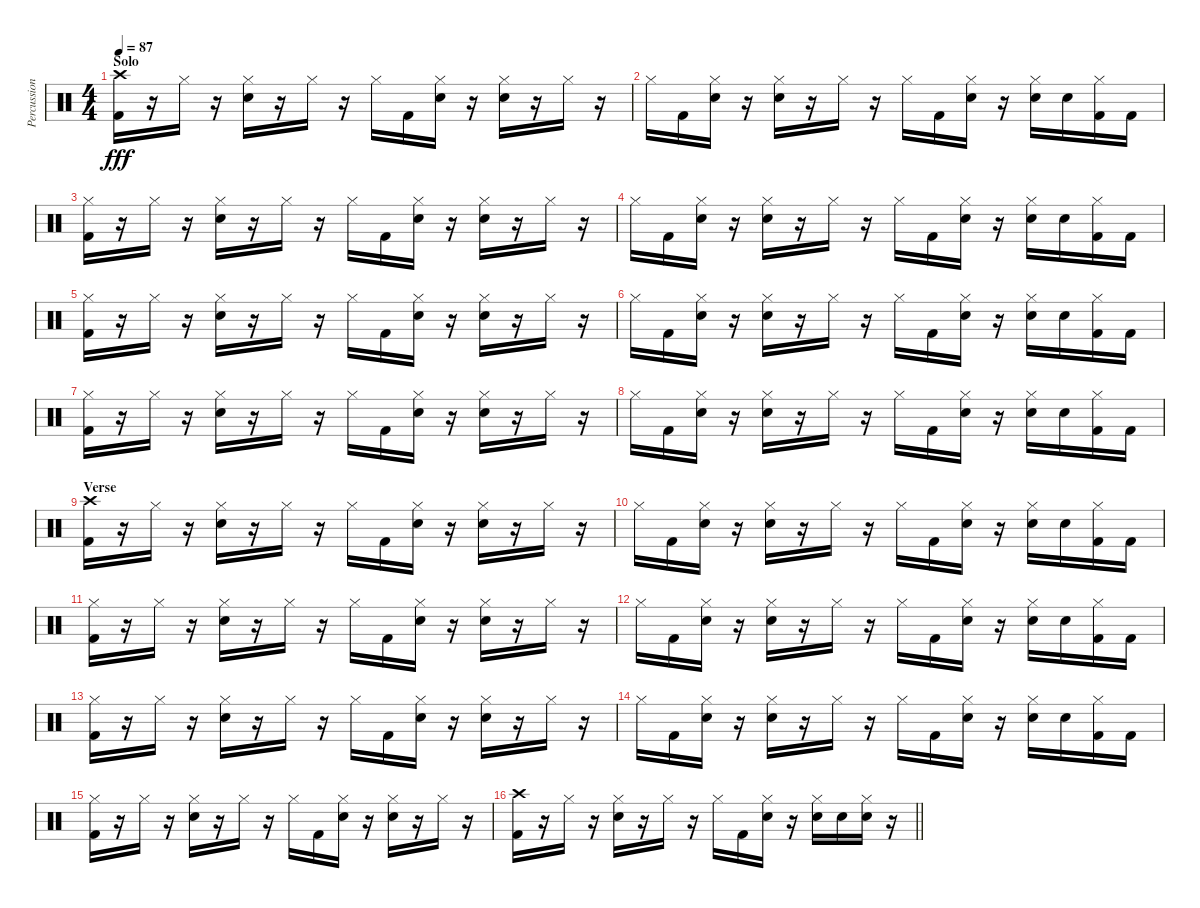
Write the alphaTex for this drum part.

\track ("Percussion" "Percussion") {instrument percussion}
\staff {score}
\articulation defaults
\ts (4 4)
\section ("" "Solo")
\tempo 87
\clef neutral
\ks c
("Crash high (hit)" "Kick (hit) 2").16{dy fff} r.16 "Hi-Hat (closed)".16 r.16 ("Hi-Hat (closed)" "Electric Snare (hit)").16 r.16 "Hi-Hat (closed)".16 r.16 "Hi-Hat (closed)".16 "Kick (hit) 2".16 ("Hi-Hat (closed)" "Electric Snare (hit)").16 r.16 ("Hi-Hat (closed)" "Electric Snare (hit)").16 r.16 "Hi-Hat (closed)".16 r.16 |
"Hi-Hat (closed)".16 "Kick (hit) 2".16 ("Hi-Hat (closed)" "Electric Snare (hit)").16 r.16 ("Hi-Hat (closed)" "Electric Snare (hit)").16 r.16 "Hi-Hat (closed)".16 r.16 "Hi-Hat (closed)".16 "Kick (hit) 2".16 ("Hi-Hat (closed)" "Electric Snare (hit)").16 r.16 ("Hi-Hat (closed)" "Electric Snare (hit)").16 "Electric Snare (hit)".16 ("Hi-Hat (closed)" "Kick (hit) 2").16 "Kick (hit) 2".16 |
("Hi-Hat (closed)" "Kick (hit) 2").16 r.16 "Hi-Hat (closed)".16 r.16 ("Hi-Hat (closed)" "Electric Snare (hit)").16 r.16 "Hi-Hat (closed)".16 r.16 "Hi-Hat (closed)".16 "Kick (hit) 2".16 ("Hi-Hat (closed)" "Electric Snare (hit)").16 r.16 ("Hi-Hat (closed)" "Electric Snare (hit)").16 r.16 "Hi-Hat (closed)".16 r.16 |
"Hi-Hat (closed)".16 "Kick (hit) 2".16 ("Hi-Hat (closed)" "Electric Snare (hit)").16 r.16 ("Hi-Hat (closed)" "Electric Snare (hit)").16 r.16 "Hi-Hat (closed)".16 r.16 "Hi-Hat (closed)".16 "Kick (hit) 2".16 ("Hi-Hat (closed)" "Electric Snare (hit)").16 r.16 ("Hi-Hat (closed)" "Electric Snare (hit)").16 "Electric Snare (hit)".16 ("Hi-Hat (closed)" "Kick (hit) 2").16 "Kick (hit) 2".16 |
("Hi-Hat (closed)" "Kick (hit) 2").16 r.16 "Hi-Hat (closed)".16 r.16 ("Hi-Hat (closed)" "Electric Snare (hit)").16 r.16 "Hi-Hat (closed)".16 r.16 "Hi-Hat (closed)".16 "Kick (hit) 2".16 ("Hi-Hat (closed)" "Electric Snare (hit)").16 r.16 ("Hi-Hat (closed)" "Electric Snare (hit)").16 r.16 "Hi-Hat (closed)".16 r.16 |
"Hi-Hat (closed)".16 "Kick (hit) 2".16 ("Hi-Hat (closed)" "Electric Snare (hit)").16 r.16 ("Hi-Hat (closed)" "Electric Snare (hit)").16 r.16 "Hi-Hat (closed)".16 r.16 "Hi-Hat (closed)".16 "Kick (hit) 2".16 ("Hi-Hat (closed)" "Electric Snare (hit)").16 r.16 ("Hi-Hat (closed)" "Electric Snare (hit)").16 "Electric Snare (hit)".16 ("Hi-Hat (closed)" "Kick (hit) 2").16 "Kick (hit) 2".16 |
("Hi-Hat (closed)" "Kick (hit) 2").16 r.16 "Hi-Hat (closed)".16 r.16 ("Hi-Hat (closed)" "Electric Snare (hit)").16 r.16 "Hi-Hat (closed)".16 r.16 "Hi-Hat (closed)".16 "Kick (hit) 2".16 ("Hi-Hat (closed)" "Electric Snare (hit)").16 r.16 ("Hi-Hat (closed)" "Electric Snare (hit)").16 r.16 "Hi-Hat (closed)".16 r.16 |
"Hi-Hat (closed)".16 "Kick (hit) 2".16 ("Hi-Hat (closed)" "Electric Snare (hit)").16 r.16 ("Hi-Hat (closed)" "Electric Snare (hit)").16 r.16 "Hi-Hat (closed)".16 r.16 "Hi-Hat (closed)".16 "Kick (hit) 2".16 ("Hi-Hat (closed)" "Electric Snare (hit)").16 r.16 ("Hi-Hat (closed)" "Electric Snare (hit)").16 "Electric Snare (hit)".16 ("Hi-Hat (closed)" "Kick (hit) 2").16 "Kick (hit) 2".16 |
\section ("" "Verse")
("Crash high (hit)" "Kick (hit) 2").16 r.16 "Hi-Hat (closed)".16 r.16 ("Hi-Hat (closed)" "Electric Snare (hit)").16 r.16 "Hi-Hat (closed)".16 r.16 "Hi-Hat (closed)".16 "Kick (hit) 2".16 ("Hi-Hat (closed)" "Electric Snare (hit)").16 r.16 ("Hi-Hat (closed)" "Electric Snare (hit)").16 r.16 "Hi-Hat (closed)".16 r.16 |
"Hi-Hat (closed)".16 "Kick (hit) 2".16 ("Hi-Hat (closed)" "Electric Snare (hit)").16 r.16 ("Hi-Hat (closed)" "Electric Snare (hit)").16 r.16 "Hi-Hat (closed)".16 r.16 "Hi-Hat (closed)".16 "Kick (hit) 2".16 ("Hi-Hat (closed)" "Electric Snare (hit)").16 r.16 ("Hi-Hat (closed)" "Electric Snare (hit)").16 "Electric Snare (hit)".16 ("Hi-Hat (closed)" "Kick (hit) 2").16 "Kick (hit) 2".16 |
("Hi-Hat (closed)" "Kick (hit) 2").16 r.16 "Hi-Hat (closed)".16 r.16 ("Hi-Hat (closed)" "Electric Snare (hit)").16 r.16 "Hi-Hat (closed)".16 r.16 "Hi-Hat (closed)".16 "Kick (hit) 2".16 ("Hi-Hat (closed)" "Electric Snare (hit)").16 r.16 ("Hi-Hat (closed)" "Electric Snare (hit)").16 r.16 "Hi-Hat (closed)".16 r.16 |
"Hi-Hat (closed)".16 "Kick (hit) 2".16 ("Hi-Hat (closed)" "Electric Snare (hit)").16 r.16 ("Hi-Hat (closed)" "Electric Snare (hit)").16 r.16 "Hi-Hat (closed)".16 r.16 "Hi-Hat (closed)".16 "Kick (hit) 2".16 ("Hi-Hat (closed)" "Electric Snare (hit)").16 r.16 ("Hi-Hat (closed)" "Electric Snare (hit)").16 "Electric Snare (hit)".16 ("Hi-Hat (closed)" "Kick (hit) 2").16 "Kick (hit) 2".16 |
("Hi-Hat (closed)" "Kick (hit) 2").16 r.16 "Hi-Hat (closed)".16 r.16 ("Hi-Hat (closed)" "Electric Snare (hit)").16 r.16 "Hi-Hat (closed)".16 r.16 "Hi-Hat (closed)".16 "Kick (hit) 2".16 ("Hi-Hat (closed)" "Electric Snare (hit)").16 r.16 ("Hi-Hat (closed)" "Electric Snare (hit)").16 r.16 "Hi-Hat (closed)".16 r.16 |
"Hi-Hat (closed)".16 "Kick (hit) 2".16 ("Hi-Hat (closed)" "Electric Snare (hit)").16 r.16 ("Hi-Hat (closed)" "Electric Snare (hit)").16 r.16 "Hi-Hat (closed)".16 r.16 "Hi-Hat (closed)".16 "Kick (hit) 2".16 ("Hi-Hat (closed)" "Electric Snare (hit)").16 r.16 ("Hi-Hat (closed)" "Electric Snare (hit)").16 "Electric Snare (hit)".16 ("Hi-Hat (closed)" "Kick (hit) 2").16 "Kick (hit) 2".16 |
("Hi-Hat (closed)" "Kick (hit) 2").16 r.16 "Hi-Hat (closed)".16 r.16 ("Hi-Hat (closed)" "Electric Snare (hit)").16 r.16 "Hi-Hat (closed)".16 r.16 "Hi-Hat (closed)".16 "Kick (hit) 2".16 ("Hi-Hat (closed)" "Electric Snare (hit)").16 r.16 ("Hi-Hat (closed)" "Electric Snare (hit)").16 r.16 "Hi-Hat (closed)".16 r.16 |
\barLineRight lightlight
("Crash high (hit)" "Kick (hit) 2").16 r.16 "Hi-Hat (closed)".16 r.16 ("Hi-Hat (closed)" "Electric Snare (hit)").16 r.16 "Hi-Hat (closed)".16 r.16 "Hi-Hat (closed)".16 "Kick (hit) 2".16 ("Hi-Hat (closed)" "Electric Snare (hit)").16 r.16 ("Hi-Hat (closed)" "Electric Snare (hit)").16 "Electric Snare (hit)".16 ("Hi-Hat (closed)" "Electric Snare (hit)").16 r.16
